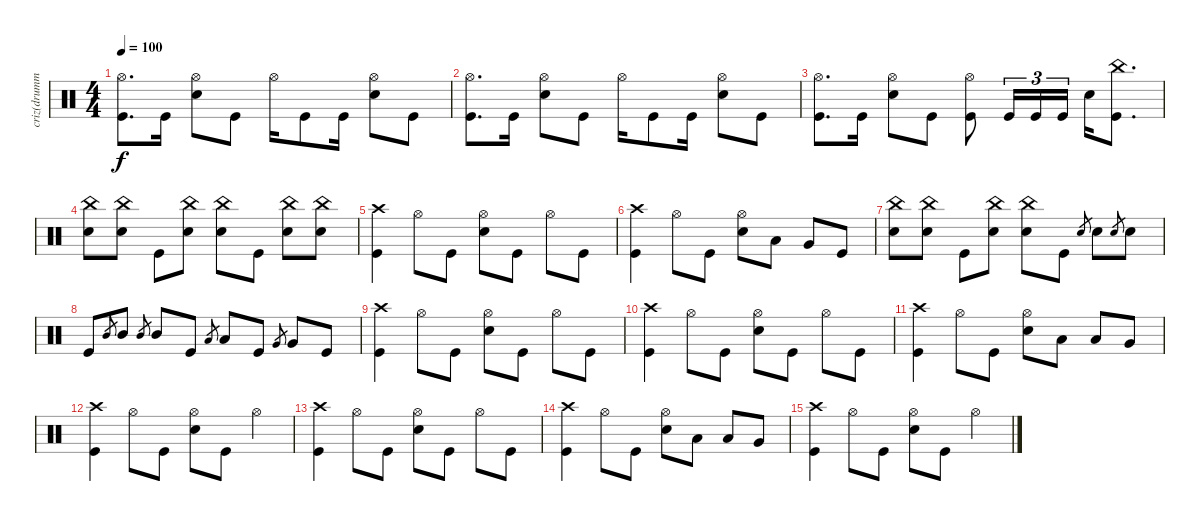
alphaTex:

\track ("criz(drummer)" "criz(drumm") {instrument percussion}
\staff {score}
\articulation defaults
\ts (4 4)
\tempo 100
\clef neutral
\ks c
("Hi-Hat (open)" "Kick (hit)").8{d dy f} "Kick (hit)".16 ("Hi-Hat (open)" "Electric Snare (hit)").8 "Kick (hit)".8 "Hi-Hat (open)".16 "Kick (hit)".8 "Kick (hit)".16 ("Hi-Hat (open)" "Electric Snare (hit)").8 "Kick (hit)".8 |
("Hi-Hat (open)" "Kick (hit)").8{d} "Kick (hit)".16 ("Hi-Hat (open)" "Electric Snare (hit)").8 "Kick (hit)".8 "Hi-Hat (open)".16 "Kick (hit)".8 "Kick (hit)".16 ("Hi-Hat (open)" "Electric Snare (hit)").8 "Kick (hit)".8 |
("Hi-Hat (open)" "Kick (hit)").8{d} "Kick (hit)".16 ("Hi-Hat (open)" "Electric Snare (hit)").8 "Kick (hit)".8 ("Hi-Hat (open)" "Kick (hit)").8 "Kick (hit)".16{tu (3 2)} "Kick (hit)".16{tu (3 2)} "Kick (hit)".16{tu (3 2)} "Electric Snare (hit)".16 ("China (hit)" "Kick (hit)").8{d} |
("China (hit)" "Electric Snare (hit)").8 ("China (hit)" "Electric Snare (hit)").8 "Kick (hit)".8 ("China (hit)" "Electric Snare (hit)").8 ("China (hit)" "Electric Snare (hit)").8 "Kick (hit)".8 ("China (hit)" "Electric Snare (hit)").8 ("China (hit)" "Electric Snare (hit)").8 |
("Crash high (hit)" "Kick (hit)").4 "Hi-Hat (open)".8 "Kick (hit)".8 ("Hi-Hat (open)" "Electric Snare (hit)").8 "Kick (hit)".8 "Hi-Hat (open)".8 "Kick (hit)".8 |
("Crash high (hit)" "Kick (hit)").4 "Hi-Hat (open)".8 "Kick (hit)".8 ("Hi-Hat (open)" "Electric Snare (hit)").8 "Low Tom (hit)".8 "Very Low Tom (hit)".8 "Kick (hit)".8 |
("China (hit)" "Electric Snare (hit)").8 ("China (hit)" "Electric Snare (hit)").8 "Kick (hit)".8 ("China (hit)" "Electric Snare (hit)").8 ("China (hit)" "Electric Snare (hit)").8 "Kick (hit)".8 "Electric Snare (hit)".8{gr} "Electric Snare (hit)".8 "Electric Snare (hit)".8{gr} "Electric Snare (hit)".8 |
"Kick (hit)".8 "Mid Tom (hit)".8{gr} "Mid Tom (hit)".8 "Mid Tom (hit)".8{gr} "Mid Tom (hit)".8 "Kick (hit)".8 "Low Tom (hit)".8{gr} "Low Tom (hit)".8 "Kick (hit)".8{volume 0} "Very Low Tom (hit)".8{gr} "Very Low Tom (hit)".8 "Kick (hit)".8 |
("Crash high (hit)" "Kick (hit)").4 "Hi-Hat (open)".8 "Kick (hit)".8 ("Hi-Hat (open)" "Electric Snare (hit)").8 "Kick (hit)".8 "Hi-Hat (open)".8 "Kick (hit)".8 |
("Crash high (hit)" "Kick (hit)").4 "Hi-Hat (open)".8 "Kick (hit)".8 ("Hi-Hat (open)" "Electric Snare (hit)").8 "Kick (hit)".8 "Hi-Hat (open)".8 "Kick (hit)".8 |
("Crash high (hit)" "Kick (hit)").4 "Hi-Hat (open)".8 "Kick (hit)".8 ("Hi-Hat (open)" "Electric Snare (hit)").8 "Low Tom (hit)".8 "Low Tom (hit)".8 "Very Low Tom (hit)".8 |
("Crash high (hit)" "Kick (hit)").4 "Hi-Hat (open)".8 "Kick (hit)".8 ("Hi-Hat (open)" "Electric Snare (hit)").8 "Kick (hit)".8 "Hi-Hat (open)".4 |
("Crash high (hit)" "Kick (hit)").4 "Hi-Hat (open)".8 "Kick (hit)".8 ("Hi-Hat (open)" "Electric Snare (hit)").8 "Kick (hit)".8 "Hi-Hat (open)".8 "Kick (hit)".8 |
("Crash high (hit)" "Kick (hit)").4 "Hi-Hat (open)".8 "Kick (hit)".8 ("Hi-Hat (open)" "Electric Snare (hit)").8 "Low Tom (hit)".8 "Low Tom (hit)".8 "Very Low Tom (hit)".8 |
("Crash high (hit)" "Kick (hit)").4 "Hi-Hat (open)".8 "Kick (hit)".8 ("Hi-Hat (open)" "Electric Snare (hit)").8 "Kick (hit)".8 "Hi-Hat (open)".4
